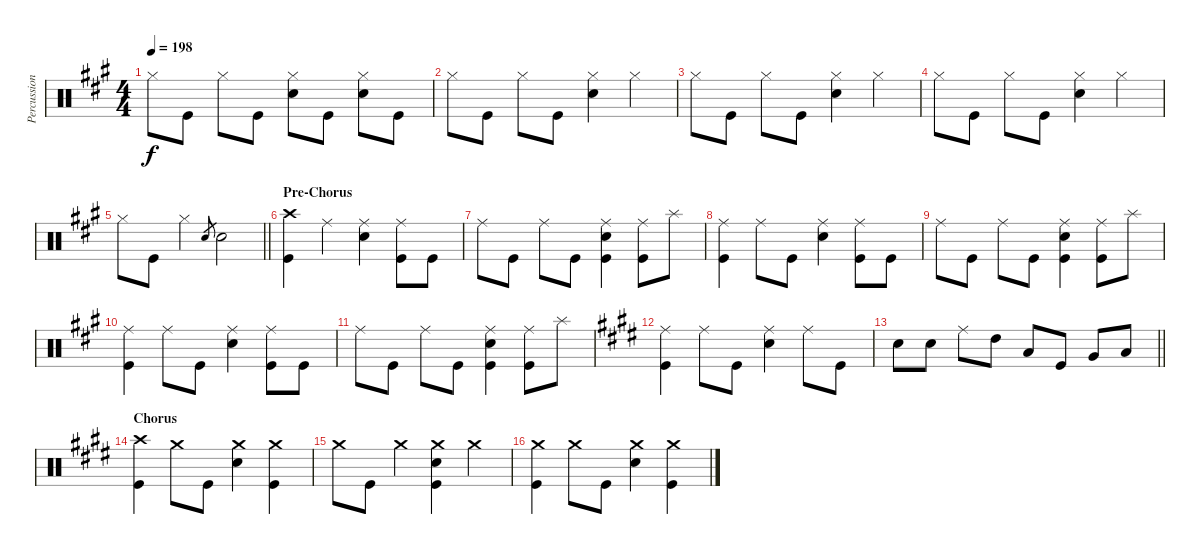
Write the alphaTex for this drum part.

\track ("Percussion" "Percussion") {instrument percussion}
\staff {score}
\articulation defaults
\ts (4 4)
\tempo 198
\clef neutral
\ks a "Hi-Hat (closed)".8{dy f} "Kick (hit)".8 "Hi-Hat (closed)".8 "Kick (hit)".8
("Hi-Hat (closed)" "Electric Snare (hit)").8 "Kick (hit)".8 ("Hi-Hat (closed)" "Electric Snare (hit)").8 "Kick (hit)".8 |
"Hi-Hat (closed)".8 "Kick (hit)".8 "Hi-Hat (closed)".8 "Kick (hit)".8 ("Hi-Hat (closed)" "Electric Snare (hit)").4 "Hi-Hat (closed)".4 |
"Hi-Hat (closed)".8 "Kick (hit)".8 "Hi-Hat (closed)".8 "Kick (hit)".8 ("Hi-Hat (closed)" "Electric Snare (hit)").4 "Hi-Hat (closed)".4 |
"Hi-Hat (closed)".8 "Kick (hit)".8 "Hi-Hat (closed)".8 "Kick (hit)".8 ("Hi-Hat (closed)" "Electric Snare (hit)").4 "Hi-Hat (closed)".4 |
\barLineRight lightlight "Hi-Hat (closed)".8 "Kick (hit)".8 "Hi-Hat (closed)".4 "Electric Snare (hit)".8{gr} "Electric Snare (hit)".2
|
\section ("" "Pre-Chorus")
("Crash high (hit)" "Kick (hit)").4 "Ride (middle)".4 ("Ride (middle)" "Electric Snare (hit)").4 ("Ride (middle)" "Kick (hit)").8 "Kick (hit)".8 |
"Ride (middle)".8 "Kick (hit)".8 "Ride (middle)".8 "Kick (hit)".8 ("Ride (middle)" "Electric Snare (hit)" "Kick (hit)").4 ("Ride (middle)" "Kick (hit)").8 "Splash (hit)".8 |
("Ride (middle)" "Kick (hit)").4 "Ride (middle)".8 "Kick (hit)".8 ("Ride (middle)" "Electric Snare (hit)").4 ("Ride (middle)" "Kick (hit)").8 "Kick (hit)".8 |
"Ride (middle)".8 "Kick (hit)".8 "Ride (middle)".8 "Kick (hit)".8 ("Ride (middle)" "Electric Snare (hit)" "Kick (hit)").4 ("Ride (middle)" "Kick (hit)").8 "Splash (hit)".8 |
("Ride (middle)" "Kick (hit)").4 "Ride (middle)".8 "Kick (hit)".8 ("Ride (middle)" "Electric Snare (hit)").4 ("Ride (middle)" "Kick (hit)").8 "Kick (hit)".8 |
"Ride (middle)".8 "Kick (hit)".8 "Ride (middle)".8 "Kick (hit)".8 ("Ride (middle)" "Electric Snare (hit)" "Kick (hit)").4 ("Ride (middle)" "Kick (hit)").8 "Splash (hit)".8 |
\ks e
("Ride (middle)" "Kick (hit)").4 "Ride (middle)".8 "Kick (hit)".8 ("Ride (middle)" "Electric Snare (hit)").4 "Ride (middle)".8 "Kick (hit)".8 |
\barLineRight lightlight "Electric Snare (hit)".8 "Electric Snare (hit)".8 "Ride (middle)".8 "High Tom (hit)".8 "Low Tom (hit)".8 "Kick (hit)".8 "Very Low Tom (hit)".8 "Low Floor Tom (hit)".8
|
\section ("" "Chorus")
("Crash high (hit)" "Kick (hit)").4 "Crash medium (hit)".8 "Kick (hit)".8 ("Crash medium (hit)" "Electric Snare (hit)").4 ("Crash medium (hit)" "Kick (hit)").4 |
"Crash medium (hit)".8 "Kick (hit)".8 "Crash medium (hit)".4 ("Crash medium (hit)" "Electric Snare (hit)" "Kick (hit)").4 "Crash medium (hit)".4 |
("Crash medium (hit)" "Kick (hit)").4 "Crash medium (hit)".8 "Kick (hit)".8 ("Crash medium (hit)" "Electric Snare (hit)").4 ("Crash medium (hit)" "Kick (hit)").4
